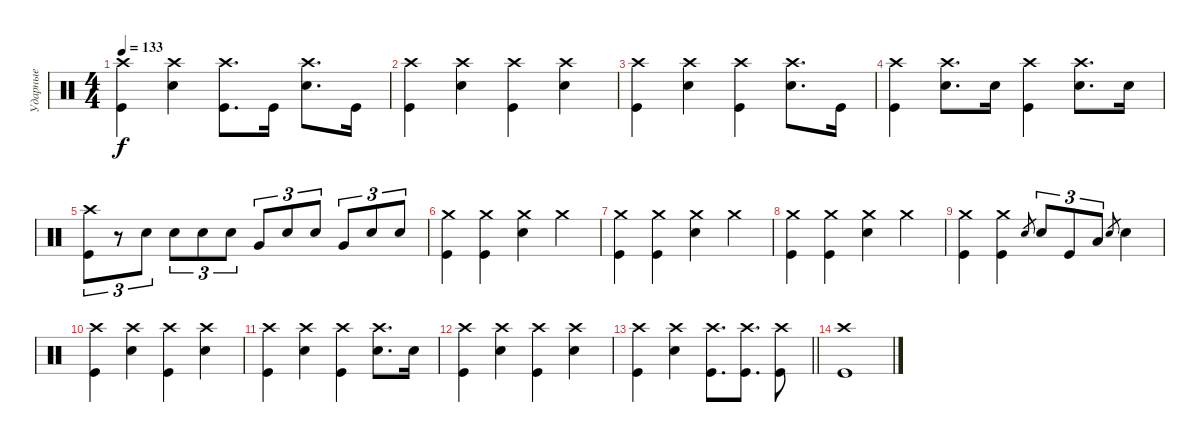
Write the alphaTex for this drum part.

\track ("Ударные" "Ударные") {instrument percussion}
\staff {score}
\articulation defaults
\ts (4 4)
\tempo 133
\clef neutral
\ks c
("Crash high (hit)" "Kick (hit)").4{dy f} ("Crash high (hit)" "Electric Snare (hit)").4 ("Crash high (hit)" "Kick (hit)").8{d} "Kick (hit)".16 ("Crash high (hit)" "Electric Snare (hit)").8{d} "Kick (hit)".16 |
("Crash high (hit)" "Kick (hit)").4 ("Crash high (hit)" "Electric Snare (hit)").4 ("Crash high (hit)" "Kick (hit)").4 ("Crash high (hit)" "Electric Snare (hit)").4 |
("Crash high (hit)" "Kick (hit)").4 ("Crash high (hit)" "Electric Snare (hit)").4 ("Crash high (hit)" "Kick (hit)").4 ("Crash high (hit)" "Electric Snare (hit)").8{d} "Kick (hit)".16 |
("Crash high (hit)" "Kick (hit)").4 ("Crash high (hit)" "Electric Snare (hit)").8{d} "Electric Snare (hit)".16 ("Crash high (hit)" "Kick (hit)").4 ("Crash high (hit)" "Electric Snare (hit)").8{d} "Electric Snare (hit)".16 |
("Crash high (hit)" "Kick (hit)").8{tu (3 2)} r.8{tu (3 2)} "Electric Snare (hit)".8{tu (3 2)} "Electric Snare (hit)".8{tu (3 2)} "Electric Snare (hit)".8{tu (3 2)} "Electric Snare (hit)".8{tu (3 2)} "Very Low Tom (hit)".8{tu (3 2)} "Electric Snare (hit)".8{tu (3 2)} "Electric Snare (hit)".8{tu (3 2)} "Very Low Tom (hit)".8{tu (3 2)} "Electric Snare (hit)".8{tu (3 2)} "Electric Snare (hit)".8{tu (3 2)} |
("Crash medium (hit)" "Kick (hit)").4 ("Crash medium (hit)" "Kick (hit)").4 ("Crash medium (hit)" "Electric Snare (hit)").4 "Crash medium (hit)".4 |
("Crash medium (hit)" "Kick (hit)").4 ("Crash medium (hit)" "Kick (hit)").4 ("Crash medium (hit)" "Electric Snare (hit)").4 "Crash medium (hit)".4 |
("Crash medium (hit)" "Kick (hit)").4 ("Crash medium (hit)" "Kick (hit)").4 ("Crash medium (hit)" "Electric Snare (hit)").4 "Crash medium (hit)".4 |
("Crash medium (hit)" "Kick (hit)").4 ("Crash medium (hit)" "Kick (hit)").4 "Electric Snare (hit)".8{gr} "Electric Snare (hit)".8{tu (3 2)} "Kick (hit)".8{tu (3 2)} "Low Tom (hit)".8{tu (3 2)} "Electric Snare (hit)".8{gr} "Electric Snare (hit)".4 |
("Crash high (hit)" "Kick (hit)").4 ("Crash high (hit)" "Electric Snare (hit)").4 ("Crash high (hit)" "Kick (hit)").4 ("Crash high (hit)" "Electric Snare (hit)").4 |
("Crash high (hit)" "Kick (hit)").4 ("Crash high (hit)" "Electric Snare (hit)").4 ("Crash high (hit)" "Kick (hit)").4 ("Crash high (hit)" "Electric Snare (hit)").8{d} "Electric Snare (hit)".16 |
("Crash high (hit)" "Kick (hit)").4 ("Crash high (hit)" "Electric Snare (hit)").4 ("Crash high (hit)" "Kick (hit)").4 ("Crash high (hit)" "Electric Snare (hit)").4 |
\barLineRight lightlight
("Crash high (hit)" "Kick (hit)").4 ("Crash high (hit)" "Electric Snare (hit)").4 ("Crash high (hit)" "Kick (hit)").8{d} ("Crash high (hit)" "Kick (hit)").8{d} ("Crash high (hit)" "Kick (hit)").8 |
("Crash high (hit)" "Kick (hit)").1
